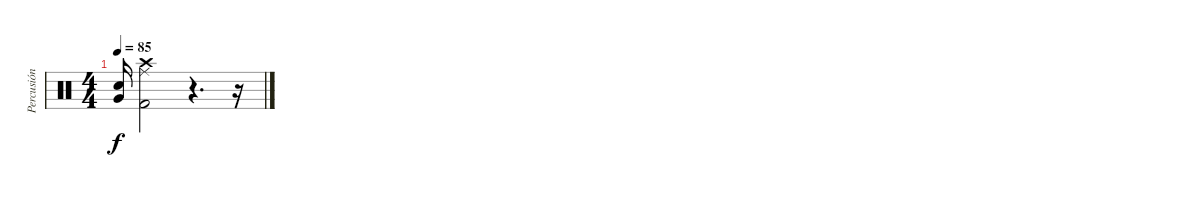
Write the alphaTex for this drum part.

\track ("Percusión" "Percusión") {instrument percussion}
\staff {score}
\articulation defaults
\ts (4 4)
\tempo 85
\clef neutral
\ks c
("Electric Snare (hit)" "Very Low Tom (hit)").16{dy f} ("Crash high (hit)" "Ride (middle)" "Kick (hit) 2").2 r.4{d} r.16
